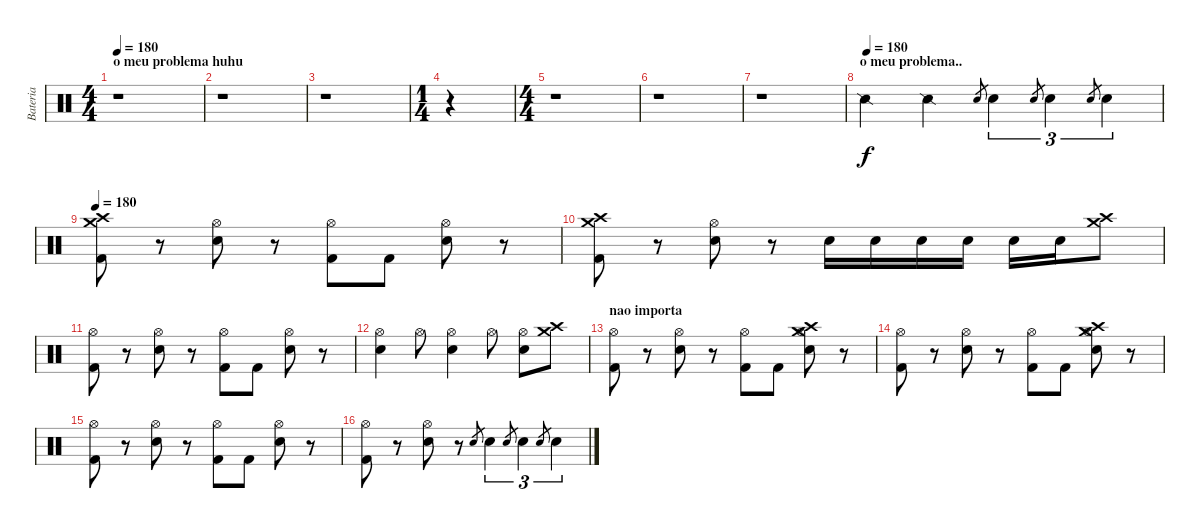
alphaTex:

\track ("Bateria" "Bateria") {instrument percussion}
\staff {score}
\articulation defaults
\ts (4 4)
\section ("" "o meu problema huhu")
\tempo 180
\tempo 120
\tempo 180
\clef neutral
\ks c
r.1{dy f} |
r.1 |
r.1 |
\ts (1 4)
r.4 |
\ts (4 4)
r.1 |
r.1 |
r.1 |
\section ("" "o meu problema..")
\tempo (180)
"Snare (side stick) 2".4 "Snare (side stick) 2".4 "Electric Snare (hit)".8{gr} "Electric Snare (hit)".4{tu (3 2)} "Electric Snare (hit)".8{gr} "Electric Snare (hit)".4{tu (3 2)} "Electric Snare (hit)".8{gr} "Electric Snare (hit)".4{tu (3 2)} |
\tempo 180
("Crash medium (hit)" "Crash high (hit)" "Kick (hit) 2").8 r.8 ("Hi-Hat (open)" "Electric Snare (hit)").8 r.8 ("Hi-Hat (open)" "Kick (hit) 2").8 "Kick (hit) 2".8 ("Hi-Hat (open)" "Electric Snare (hit)").8 r.8 |
("Crash medium (hit)" "Crash high (hit)" "Kick (hit) 2").8 r.8 ("Hi-Hat (open)" "Electric Snare (hit)").8 r.8 "Electric Snare (hit)".16 "Electric Snare (hit)".16 "Electric Snare (hit)".16 "Electric Snare (hit)".16 "Electric Snare (hit)".16 "Electric Snare (hit)".16 ("Crash medium (hit)" "Crash high (hit)").8 |
("Hi-Hat (open)" "Kick (hit) 2").8 r.8 ("Hi-Hat (open)" "Electric Snare (hit)").8 r.8 ("Hi-Hat (open)" "Kick (hit) 2").8 "Kick (hit) 2".8 ("Hi-Hat (open)" "Electric Snare (hit)").8 r.8 |
("Hi-Hat (open)" "Electric Snare (hit)").4 "Hi-Hat (open)".8 ("Hi-Hat (open)" "Electric Snare (hit)").4 "Hi-Hat (open)".8 ("Hi-Hat (open)" "Electric Snare (hit)").8 ("Crash medium (hit)" "Crash high (hit)").8 |
\section ("" "nao importa")
("Hi-Hat (open)" "Kick (hit) 2").8 r.8 ("Hi-Hat (open)" "Electric Snare (hit)").8 r.8 ("Hi-Hat (open)" "Kick (hit) 2").8 "Kick (hit) 2".8 ("Crash medium (hit)" "Crash high (hit)" "Hi-Hat (open)" "Electric Snare (hit)").8 r.8 |
("Hi-Hat (open)" "Kick (hit) 2").8 r.8 ("Hi-Hat (open)" "Electric Snare (hit)").8 r.8 ("Hi-Hat (open)" "Kick (hit) 2").8 "Kick (hit) 2".8 ("Crash medium (hit)" "Crash high (hit)" "Hi-Hat (open)" "Electric Snare (hit)").8 r.8 |
("Hi-Hat (open)" "Kick (hit) 2").8 r.8 ("Hi-Hat (open)" "Electric Snare (hit)").8 r.8 ("Hi-Hat (open)" "Kick (hit) 2").8 "Kick (hit) 2".8 ("Hi-Hat (open)" "Electric Snare (hit)").8 r.8 |
("Hi-Hat (open)" "Kick (hit) 2").8 r.8 ("Hi-Hat (open)" "Electric Snare (hit)").8 r.8 "Electric Snare (hit)".8{gr} "Electric Snare (hit)".4{tu (3 2)} "Electric Snare (hit)".8{gr} "Electric Snare (hit)".4{tu (3 2)} "Electric Snare (hit)".8{gr} "Electric Snare (hit)".4{tu (3 2)}
